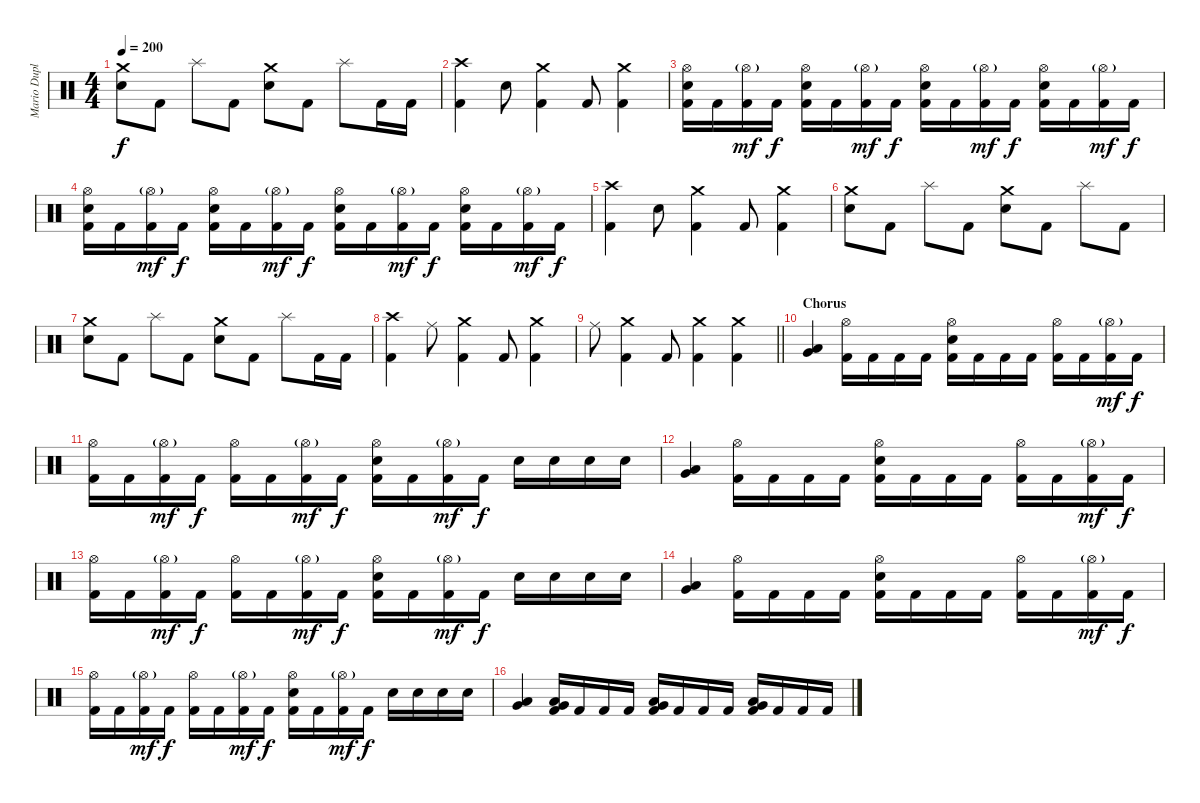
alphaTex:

\track ("Mario Duplantier" "Mario Dupl") {instrument percussion}
\staff {score}
\articulation defaults
\ts (4 4)
\tempo 200
\clef neutral
\ks c
("Crash medium (hit)" "Electric Snare (hit)").8{dy f} "Kick (hit) 2".8 "Splash (hit)".8 "Kick (hit) 2".8 ("Crash medium (hit)" "Electric Snare (hit)").8 "Kick (hit) 2".8 "Splash (hit)".8 "Kick (hit) 2".16 "Kick (hit) 2".16 |
("Crash high (hit)" "Kick (hit) 2").4 "Electric Snare (hit)".8 ("Crash medium (hit)" "Kick (hit) 2").4 "Kick (hit) 2".8 ("Crash medium (hit)" "Kick (hit) 2").4 |
("Hi-Hat (open)" "Electric Snare (hit)" "Kick (hit) 2").16 "Kick (hit) 2".16 ("Hi-Hat (open)"{g} "Kick (hit) 2").16{dy mf} "Kick (hit) 2".16{dy f} ("Hi-Hat (open)" "Electric Snare (hit)" "Kick (hit) 2").16 "Kick (hit) 2".16 ("Hi-Hat (open)"{g} "Kick (hit) 2").16{dy mf} "Kick (hit) 2".16{dy f} ("Hi-Hat (open)" "Electric Snare (hit)" "Kick (hit) 2").16 "Kick (hit) 2".16 ("Hi-Hat (open)"{g} "Kick (hit) 2").16{dy mf} "Kick (hit) 2".16{dy f} ("Hi-Hat (open)" "Electric Snare (hit)" "Kick (hit) 2").16 "Kick (hit) 2".16 ("Hi-Hat (open)"{g} "Kick (hit) 2").16{dy mf} "Kick (hit) 2".16{dy f} |
("Hi-Hat (open)" "Electric Snare (hit)" "Kick (hit) 2").16 "Kick (hit) 2".16 ("Hi-Hat (open)"{g} "Kick (hit) 2").16{dy mf} "Kick (hit) 2".16{dy f} ("Hi-Hat (open)" "Electric Snare (hit)" "Kick (hit) 2").16 "Kick (hit) 2".16 ("Hi-Hat (open)"{g} "Kick (hit) 2").16{dy mf} "Kick (hit) 2".16{dy f} ("Hi-Hat (open)" "Electric Snare (hit)" "Kick (hit) 2").16 "Kick (hit) 2".16 ("Hi-Hat (open)"{g} "Kick (hit) 2").16{dy mf} "Kick (hit) 2".16{dy f} ("Hi-Hat (open)" "Electric Snare (hit)" "Kick (hit) 2").16 "Kick (hit) 2".16 ("Hi-Hat (open)"{g} "Kick (hit) 2").16{dy mf} "Kick (hit) 2".16{dy f} |
("Crash high (hit)" "Kick (hit) 2").4 "Electric Snare (hit)".8 ("Crash medium (hit)" "Kick (hit) 2").4 "Kick (hit) 2".8 ("Crash medium (hit)" "Kick (hit) 2").4 |
("Crash medium (hit)" "Electric Snare (hit)").8 "Kick (hit) 2".8 "Splash (hit)".8 "Kick (hit) 2".8 ("Crash medium (hit)" "Electric Snare (hit)").8 "Kick (hit) 2".8 "Splash (hit)".8 "Kick (hit) 2".8 |
("Crash medium (hit)" "Electric Snare (hit)").8 "Kick (hit) 2".8 "Splash (hit)".8 "Kick (hit) 2".8 ("Crash medium (hit)" "Electric Snare (hit)").8 "Kick (hit) 2".8 "Splash (hit)".8 "Kick (hit) 2".16 "Kick (hit) 2".16 |
("Crash high (hit)" "Kick (hit) 2").4 "Ride (middle)".8 ("Crash medium (hit)" "Kick (hit) 2").4 "Kick (hit) 2".8 ("Crash medium (hit)" "Kick (hit) 2").4 |
\barLineRight lightlight "Ride (middle)".8
("Crash medium (hit)" "Kick (hit) 2").4 "Kick (hit) 2".8 ("Crash medium (hit)" "Kick (hit) 2").4 ("Crash medium (hit)" "Kick (hit) 2").4 |
\section ("" "Chorus")
("Low Floor Tom (hit)" "Very Low Tom (hit)").4 ("Hi-Hat (open)" "Kick (hit) 2").16 "Kick (hit) 2".16 "Kick (hit) 2".16 "Kick (hit) 2".16 ("Hi-Hat (open)" "Electric Snare (hit)" "Kick (hit) 2").16 "Kick (hit) 2".16 "Kick (hit) 2".16 "Kick (hit) 2".16 ("Hi-Hat (open)" "Kick (hit) 2").16 "Kick (hit) 2".16 ("Hi-Hat (open)"{g} "Kick (hit) 2").16{dy mf} "Kick (hit) 2".16{dy f} |
("Hi-Hat (open)" "Kick (hit) 2").16 "Kick (hit) 2".16 ("Hi-Hat (open)"{g} "Kick (hit) 2").16{dy mf} "Kick (hit) 2".16{dy f} ("Hi-Hat (open)" "Kick (hit) 2").16 "Kick (hit) 2".16 ("Hi-Hat (open)"{g} "Kick (hit) 2").16{dy mf} "Kick (hit) 2".16{dy f} ("Hi-Hat (open)" "Electric Snare (hit)" "Kick (hit) 2").16 "Kick (hit) 2".16 ("Hi-Hat (open)"{g} "Kick (hit) 2").16{dy mf} "Kick (hit) 2".16{dy f} "Electric Snare (hit)".16 "Electric Snare (hit)".16 "Electric Snare (hit)".16 "Electric Snare (hit)".16 |
("Low Floor Tom (hit)" "Very Low Tom (hit)").4 ("Hi-Hat (open)" "Kick (hit) 2").16 "Kick (hit) 2".16 "Kick (hit) 2".16 "Kick (hit) 2".16 ("Hi-Hat (open)" "Electric Snare (hit)" "Kick (hit) 2").16 "Kick (hit) 2".16 "Kick (hit) 2".16 "Kick (hit) 2".16 ("Hi-Hat (open)" "Kick (hit) 2").16 "Kick (hit) 2".16 ("Hi-Hat (open)"{g} "Kick (hit) 2").16{dy mf} "Kick (hit) 2".16{dy f} |
("Hi-Hat (open)" "Kick (hit) 2").16 "Kick (hit) 2".16 ("Hi-Hat (open)"{g} "Kick (hit) 2").16{dy mf} "Kick (hit) 2".16{dy f} ("Hi-Hat (open)" "Kick (hit) 2").16 "Kick (hit) 2".16 ("Hi-Hat (open)"{g} "Kick (hit) 2").16{dy mf} "Kick (hit) 2".16{dy f} ("Hi-Hat (open)" "Electric Snare (hit)" "Kick (hit) 2").16 "Kick (hit) 2".16 ("Hi-Hat (open)"{g} "Kick (hit) 2").16{dy mf} "Kick (hit) 2".16{dy f} "Electric Snare (hit)".16 "Electric Snare (hit)".16 "Electric Snare (hit)".16 "Electric Snare (hit)".16 |
("Low Floor Tom (hit)" "Very Low Tom (hit)").4 ("Hi-Hat (open)" "Kick (hit) 2").16 "Kick (hit) 2".16 "Kick (hit) 2".16 "Kick (hit) 2".16 ("Hi-Hat (open)" "Electric Snare (hit)" "Kick (hit) 2").16 "Kick (hit) 2".16 "Kick (hit) 2".16 "Kick (hit) 2".16 ("Hi-Hat (open)" "Kick (hit) 2").16 "Kick (hit) 2".16 ("Hi-Hat (open)"{g} "Kick (hit) 2").16{dy mf} "Kick (hit) 2".16{dy f} |
("Hi-Hat (open)" "Kick (hit) 2").16 "Kick (hit) 2".16 ("Hi-Hat (open)"{g} "Kick (hit) 2").16{dy mf} "Kick (hit) 2".16{dy f} ("Hi-Hat (open)" "Kick (hit) 2").16 "Kick (hit) 2".16 ("Hi-Hat (open)"{g} "Kick (hit) 2").16{dy mf} "Kick (hit) 2".16{dy f} ("Hi-Hat (open)" "Electric Snare (hit)" "Kick (hit) 2").16 "Kick (hit) 2".16 ("Hi-Hat (open)"{g} "Kick (hit) 2").16{dy mf} "Kick (hit) 2".16{dy f} "Electric Snare (hit)".16 "Electric Snare (hit)".16 "Electric Snare (hit)".16 "Electric Snare (hit)".16 |
("Low Floor Tom (hit)" "Very Low Tom (hit)").4 ("Very Low Tom (hit)" "Low Floor Tom (hit)" "Kick (hit) 2").16 "Kick (hit) 2".16 "Kick (hit) 2".16 "Kick (hit) 2".16 ("Very Low Tom (hit)" "Low Floor Tom (hit)" "Kick (hit) 2").16 "Kick (hit) 2".16 "Kick (hit) 2".16 "Kick (hit) 2".16 ("Very Low Tom (hit)" "Low Floor Tom (hit)" "Kick (hit) 2").16 "Kick (hit) 2".16 "Kick (hit) 2".16 "Kick (hit) 2".16
